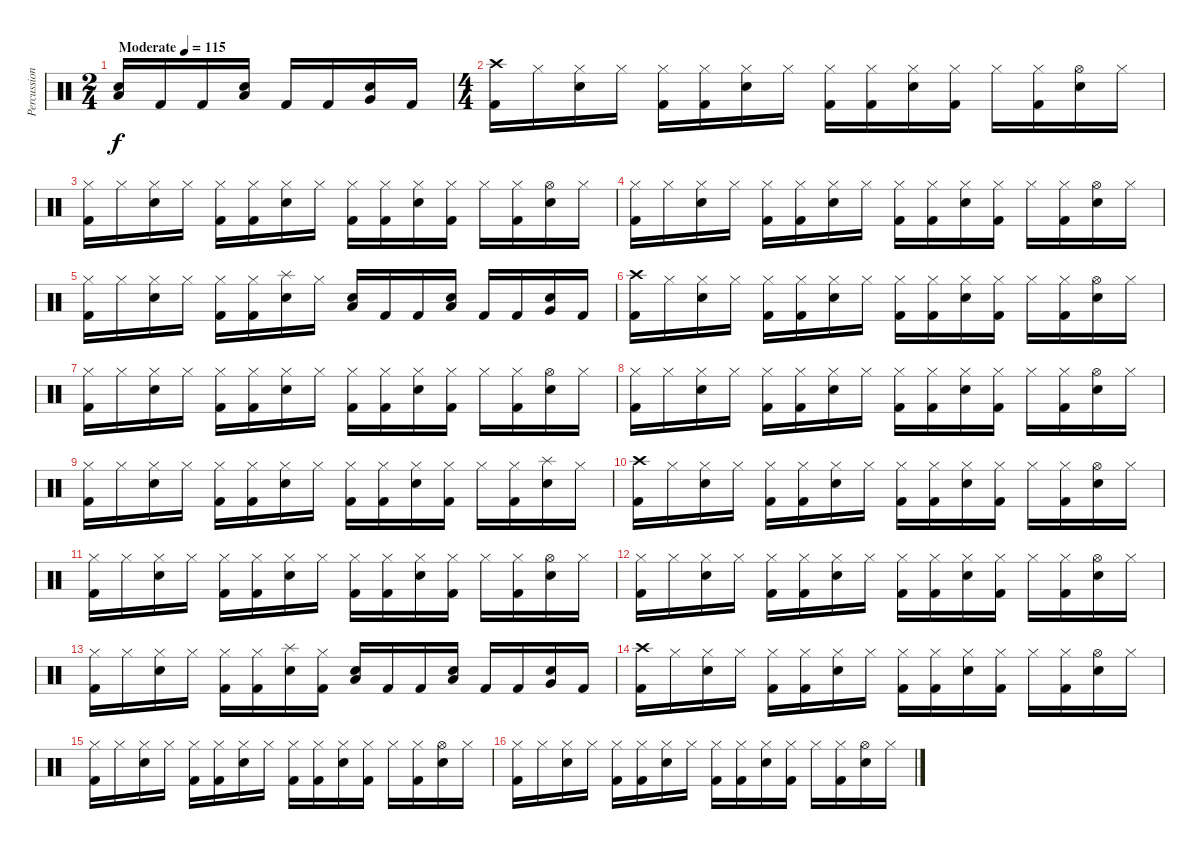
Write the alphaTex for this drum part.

\track ("Percussion" "Percussion") {instrument percussion}
\staff {score}
\articulation defaults
\ts (2 4)
\tempo (115 "Moderate")
\clef neutral
\ks c
("Low Tom (hit)" "Electric Snare (hit)").16{dy f} "Kick (hit) 2".16 "Kick (hit) 2".16 ("Low Tom (hit)" "Electric Snare (hit)").16 "Kick (hit) 2".16 "Kick (hit) 2".16 ("Very Low Tom (hit)" "Electric Snare (hit)").16 "Kick (hit) 2".16 |
\ts (4 4)
("Crash high (hit)" "Kick (hit) 2").16 "Hi-Hat (closed)".16 ("Hi-Hat (closed)" "Electric Snare (hit)").16 "Hi-Hat (closed)".16 ("Hi-Hat (closed)" "Kick (hit) 2").16 ("Hi-Hat (closed)" "Kick (hit) 2").16 ("Hi-Hat (closed)" "Electric Snare (hit)").16 "Hi-Hat (closed)".16 ("Hi-Hat (closed)" "Kick (hit) 2").16 ("Hi-Hat (closed)" "Kick (hit) 2").16 ("Hi-Hat (closed)" "Electric Snare (hit)").16 ("Hi-Hat (closed)" "Kick (hit) 2").16 "Hi-Hat (closed)".16 ("Hi-Hat (closed)" "Kick (hit) 2").16 ("Hi-Hat (open)" "Electric Snare (hit)").16 "Hi-Hat (closed)".16 |
("Hi-Hat (closed)" "Kick (hit) 2").16 "Hi-Hat (closed)".16 ("Hi-Hat (closed)" "Electric Snare (hit)").16 "Hi-Hat (closed)".16 ("Hi-Hat (closed)" "Kick (hit) 2").16 ("Hi-Hat (closed)" "Kick (hit) 2").16 ("Hi-Hat (closed)" "Electric Snare (hit)").16 "Hi-Hat (closed)".16 ("Hi-Hat (closed)" "Kick (hit) 2").16 ("Hi-Hat (closed)" "Kick (hit) 2").16 ("Hi-Hat (closed)" "Electric Snare (hit)").16 ("Hi-Hat (closed)" "Kick (hit) 2").16 "Hi-Hat (closed)".16 ("Hi-Hat (closed)" "Kick (hit) 2").16 ("Hi-Hat (open)" "Electric Snare (hit)").16 "Hi-Hat (closed)".16 |
("Hi-Hat (closed)" "Kick (hit) 2").16 "Hi-Hat (closed)".16 ("Hi-Hat (closed)" "Electric Snare (hit)").16 "Hi-Hat (closed)".16 ("Hi-Hat (closed)" "Kick (hit) 2").16 ("Hi-Hat (closed)" "Kick (hit) 2").16 ("Hi-Hat (closed)" "Electric Snare (hit)").16 "Hi-Hat (closed)".16 ("Hi-Hat (closed)" "Kick (hit) 2").16 ("Hi-Hat (closed)" "Kick (hit) 2").16 ("Hi-Hat (closed)" "Electric Snare (hit)").16 ("Hi-Hat (closed)" "Kick (hit) 2").16 "Hi-Hat (closed)".16 ("Hi-Hat (closed)" "Kick (hit) 2").16 ("Hi-Hat (open)" "Electric Snare (hit)").16 "Hi-Hat (closed)".16 |
("Hi-Hat (closed)" "Kick (hit) 2").16 "Hi-Hat (closed)".16 ("Hi-Hat (closed)" "Electric Snare (hit)").16 "Hi-Hat (closed)".16 ("Hi-Hat (closed)" "Kick (hit) 2").16 ("Hi-Hat (closed)" "Kick (hit) 2").16 ("Splash (hit)" "Electric Snare (hit)").16 "Hi-Hat (closed)".16 ("Low Tom (hit)" "Electric Snare (hit)").16 "Kick (hit) 2".16 "Kick (hit) 2".16 ("Low Tom (hit)" "Electric Snare (hit)").16 "Kick (hit) 2".16 "Kick (hit) 2".16 ("Very Low Tom (hit)" "Electric Snare (hit)").16 "Kick (hit) 2".16 |
("Crash high (hit)" "Kick (hit) 2").16 "Hi-Hat (closed)".16 ("Hi-Hat (closed)" "Electric Snare (hit)").16 "Hi-Hat (closed)".16 ("Hi-Hat (closed)" "Kick (hit) 2").16 ("Hi-Hat (closed)" "Kick (hit) 2").16 ("Hi-Hat (closed)" "Electric Snare (hit)").16 "Hi-Hat (closed)".16 ("Hi-Hat (closed)" "Kick (hit) 2").16 ("Hi-Hat (closed)" "Kick (hit) 2").16 ("Hi-Hat (closed)" "Electric Snare (hit)").16 ("Hi-Hat (closed)" "Kick (hit) 2").16 "Hi-Hat (closed)".16 ("Hi-Hat (closed)" "Kick (hit) 2").16 ("Hi-Hat (open)" "Electric Snare (hit)").16 "Hi-Hat (closed)".16 |
("Hi-Hat (closed)" "Kick (hit) 2").16 "Hi-Hat (closed)".16 ("Hi-Hat (closed)" "Electric Snare (hit)").16 "Hi-Hat (closed)".16 ("Hi-Hat (closed)" "Kick (hit) 2").16 ("Hi-Hat (closed)" "Kick (hit) 2").16 ("Hi-Hat (closed)" "Electric Snare (hit)").16 "Hi-Hat (closed)".16 ("Hi-Hat (closed)" "Kick (hit) 2").16 ("Hi-Hat (closed)" "Kick (hit) 2").16 ("Hi-Hat (closed)" "Electric Snare (hit)").16 ("Hi-Hat (closed)" "Kick (hit) 2").16 "Hi-Hat (closed)".16 ("Hi-Hat (closed)" "Kick (hit) 2").16 ("Hi-Hat (open)" "Electric Snare (hit)").16 "Hi-Hat (closed)".16 |
("Hi-Hat (closed)" "Kick (hit) 2").16 "Hi-Hat (closed)".16 ("Hi-Hat (closed)" "Electric Snare (hit)").16 "Hi-Hat (closed)".16 ("Hi-Hat (closed)" "Kick (hit) 2").16 ("Hi-Hat (closed)" "Kick (hit) 2").16 ("Hi-Hat (closed)" "Electric Snare (hit)").16 "Hi-Hat (closed)".16 ("Hi-Hat (closed)" "Kick (hit) 2").16 ("Hi-Hat (closed)" "Kick (hit) 2").16 ("Hi-Hat (closed)" "Electric Snare (hit)").16 ("Hi-Hat (closed)" "Kick (hit) 2").16 "Hi-Hat (closed)".16 ("Hi-Hat (closed)" "Kick (hit) 2").16 ("Hi-Hat (open)" "Electric Snare (hit)").16 "Hi-Hat (closed)".16 |
("Hi-Hat (closed)" "Kick (hit) 2").16 "Hi-Hat (closed)".16 ("Hi-Hat (closed)" "Electric Snare (hit)").16 "Hi-Hat (closed)".16 ("Hi-Hat (closed)" "Kick (hit) 2").16 ("Hi-Hat (closed)" "Kick (hit) 2").16 ("Hi-Hat (closed)" "Electric Snare (hit)").16 "Hi-Hat (closed)".16 ("Hi-Hat (closed)" "Kick (hit) 2").16 ("Hi-Hat (closed)" "Kick (hit) 2").16 ("Hi-Hat (closed)" "Electric Snare (hit)").16 ("Hi-Hat (closed)" "Kick (hit) 2").16 "Hi-Hat (closed)".16 ("Hi-Hat (closed)" "Kick (hit) 2").16 ("Splash (hit)" "Electric Snare (hit)").16 "Hi-Hat (closed)".16 |
("Crash high (hit)" "Kick (hit) 2").16 "Hi-Hat (closed)".16 ("Hi-Hat (closed)" "Electric Snare (hit)").16 "Hi-Hat (closed)".16 ("Hi-Hat (closed)" "Kick (hit) 2").16 ("Hi-Hat (closed)" "Kick (hit) 2").16 ("Hi-Hat (closed)" "Electric Snare (hit)").16 "Hi-Hat (closed)".16 ("Hi-Hat (closed)" "Kick (hit) 2").16 ("Hi-Hat (closed)" "Kick (hit) 2").16 ("Hi-Hat (closed)" "Electric Snare (hit)").16 ("Hi-Hat (closed)" "Kick (hit) 2").16 "Hi-Hat (closed)".16 ("Hi-Hat (closed)" "Kick (hit) 2").16 ("Hi-Hat (open)" "Electric Snare (hit)").16 "Hi-Hat (closed)".16 |
("Hi-Hat (closed)" "Kick (hit) 2").16 "Hi-Hat (closed)".16 ("Hi-Hat (closed)" "Electric Snare (hit)").16 "Hi-Hat (closed)".16 ("Hi-Hat (closed)" "Kick (hit) 2").16 ("Hi-Hat (closed)" "Kick (hit) 2").16 ("Hi-Hat (closed)" "Electric Snare (hit)").16 "Hi-Hat (closed)".16 ("Hi-Hat (closed)" "Kick (hit) 2").16 ("Hi-Hat (closed)" "Kick (hit) 2").16 ("Hi-Hat (closed)" "Electric Snare (hit)").16 ("Hi-Hat (closed)" "Kick (hit) 2").16 "Hi-Hat (closed)".16 ("Hi-Hat (closed)" "Kick (hit) 2").16 ("Hi-Hat (open)" "Electric Snare (hit)").16 "Hi-Hat (closed)".16 |
("Hi-Hat (closed)" "Kick (hit) 2").16 "Hi-Hat (closed)".16 ("Hi-Hat (closed)" "Electric Snare (hit)").16 "Hi-Hat (closed)".16 ("Hi-Hat (closed)" "Kick (hit) 2").16 ("Hi-Hat (closed)" "Kick (hit) 2").16 ("Hi-Hat (closed)" "Electric Snare (hit)").16 "Hi-Hat (closed)".16 ("Hi-Hat (closed)" "Kick (hit) 2").16 ("Hi-Hat (closed)" "Kick (hit) 2").16 ("Hi-Hat (closed)" "Electric Snare (hit)").16 ("Hi-Hat (closed)" "Kick (hit) 2").16 "Hi-Hat (closed)".16 ("Hi-Hat (closed)" "Kick (hit) 2").16 ("Hi-Hat (open)" "Electric Snare (hit)").16 "Hi-Hat (closed)".16 |
("Hi-Hat (closed)" "Kick (hit) 2").16 "Hi-Hat (closed)".16 ("Hi-Hat (closed)" "Electric Snare (hit)").16 "Hi-Hat (closed)".16 ("Hi-Hat (closed)" "Kick (hit) 2").16 ("Hi-Hat (closed)" "Kick (hit) 2").16 ("Splash (hit)" "Electric Snare (hit)").16 ("Hi-Hat (closed)" "Kick (hit) 2").16 ("Low Tom (hit)" "Electric Snare (hit)").16 "Kick (hit) 2".16 "Kick (hit) 2".16 ("Low Tom (hit)" "Electric Snare (hit)").16 "Kick (hit) 2".16 "Kick (hit) 2".16 ("Very Low Tom (hit)" "Electric Snare (hit)").16 "Kick (hit) 2".16 |
("Crash high (hit)" "Kick (hit) 2").16 "Hi-Hat (closed)".16 ("Hi-Hat (closed)" "Electric Snare (hit)").16 "Hi-Hat (closed)".16 ("Hi-Hat (closed)" "Kick (hit) 2").16 ("Hi-Hat (closed)" "Kick (hit) 2").16 ("Hi-Hat (closed)" "Electric Snare (hit)").16 "Hi-Hat (closed)".16 ("Hi-Hat (closed)" "Kick (hit) 2").16 ("Hi-Hat (closed)" "Kick (hit) 2").16 ("Hi-Hat (closed)" "Electric Snare (hit)").16 ("Hi-Hat (closed)" "Kick (hit) 2").16 "Hi-Hat (closed)".16 ("Hi-Hat (closed)" "Kick (hit) 2").16 ("Hi-Hat (open)" "Electric Snare (hit)").16 "Hi-Hat (closed)".16 |
("Hi-Hat (closed)" "Kick (hit) 2").16 "Hi-Hat (closed)".16 ("Hi-Hat (closed)" "Electric Snare (hit)").16 "Hi-Hat (closed)".16 ("Hi-Hat (closed)" "Kick (hit) 2").16 ("Hi-Hat (closed)" "Kick (hit) 2").16 ("Hi-Hat (closed)" "Electric Snare (hit)").16 "Hi-Hat (closed)".16 ("Hi-Hat (closed)" "Kick (hit) 2").16 ("Hi-Hat (closed)" "Kick (hit) 2").16 ("Hi-Hat (closed)" "Electric Snare (hit)").16 ("Hi-Hat (closed)" "Kick (hit) 2").16 "Hi-Hat (closed)".16 ("Hi-Hat (closed)" "Kick (hit) 2").16 ("Hi-Hat (open)" "Electric Snare (hit)").16 "Hi-Hat (closed)".16 |
("Hi-Hat (closed)" "Kick (hit) 2").16 "Hi-Hat (closed)".16 ("Hi-Hat (closed)" "Electric Snare (hit)").16 "Hi-Hat (closed)".16 ("Hi-Hat (closed)" "Kick (hit) 2").16 ("Hi-Hat (closed)" "Kick (hit) 2").16 ("Hi-Hat (closed)" "Electric Snare (hit)").16 "Hi-Hat (closed)".16 ("Hi-Hat (closed)" "Kick (hit) 2").16 ("Hi-Hat (closed)" "Kick (hit) 2").16 ("Hi-Hat (closed)" "Electric Snare (hit)").16 ("Hi-Hat (closed)" "Kick (hit) 2").16 "Hi-Hat (closed)".16 ("Hi-Hat (closed)" "Kick (hit) 2").16 ("Hi-Hat (open)" "Electric Snare (hit)").16 "Hi-Hat (closed)".16
